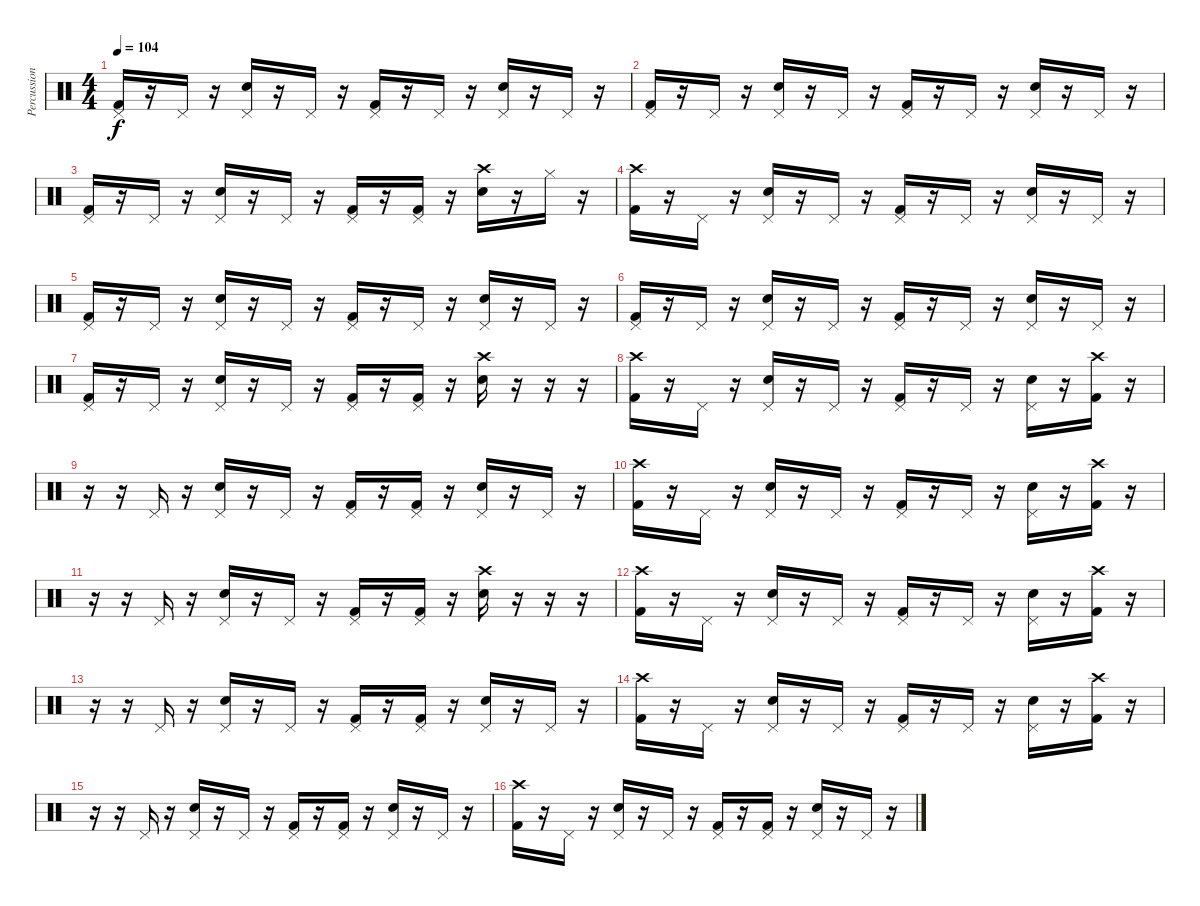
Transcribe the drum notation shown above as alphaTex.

\track ("Percussion" "Percussion") {instrument percussion}
\staff {score}
\articulation defaults
\ts (4 4)
\tempo 104
\clef neutral
\ks c
("Pedal Hi-Hat (hit)" "Kick (hit) 2").16{dy f} r.16 "Pedal Hi-Hat (hit)".16 r.16 ("Pedal Hi-Hat (hit)" "Snare (hit) 2").16 r.16 "Pedal Hi-Hat (hit)".16 r.16 ("Pedal Hi-Hat (hit)" "Kick (hit) 2").16 r.16 "Pedal Hi-Hat (hit)".16 r.16 ("Pedal Hi-Hat (hit)" "Snare (hit) 2").16 r.16 "Pedal Hi-Hat (hit)".16 r.16 |
("Pedal Hi-Hat (hit)" "Kick (hit) 2").16 r.16 "Pedal Hi-Hat (hit)".16 r.16 ("Pedal Hi-Hat (hit)" "Snare (hit) 2").16 r.16 "Pedal Hi-Hat (hit)".16 r.16 ("Pedal Hi-Hat (hit)" "Kick (hit) 2").16 r.16 "Pedal Hi-Hat (hit)".16 r.16 ("Pedal Hi-Hat (hit)" "Snare (hit) 2").16 r.16 "Pedal Hi-Hat (hit)".16 r.16 |
("Pedal Hi-Hat (hit)" "Kick (hit) 2").16 r.16 "Pedal Hi-Hat (hit)".16 r.16 ("Pedal Hi-Hat (hit)" "Snare (hit) 2").16 r.16 "Pedal Hi-Hat (hit)".16 r.16 ("Pedal Hi-Hat (hit)" "Kick (hit) 2").16 r.16 ("Pedal Hi-Hat (hit)" "Kick (hit) 2").16 r.16 ("Crash high (hit)" "Snare (hit) 2").16 r.16 "Hi-Hat (closed)".16 r.16 |
("Crash high (hit)" "Kick (hit) 2").16 r.16 "Pedal Hi-Hat (hit)".16 r.16 ("Pedal Hi-Hat (hit)" "Snare (hit) 2").16 r.16 "Pedal Hi-Hat (hit)".16 r.16 ("Pedal Hi-Hat (hit)" "Kick (hit) 2").16 r.16 "Pedal Hi-Hat (hit)".16 r.16 ("Pedal Hi-Hat (hit)" "Snare (hit) 2").16 r.16 "Pedal Hi-Hat (hit)".16 r.16 |
("Pedal Hi-Hat (hit)" "Kick (hit) 2").16 r.16 "Pedal Hi-Hat (hit)".16 r.16 ("Pedal Hi-Hat (hit)" "Snare (hit) 2").16 r.16 "Pedal Hi-Hat (hit)".16 r.16 ("Pedal Hi-Hat (hit)" "Kick (hit) 2").16 r.16 "Pedal Hi-Hat (hit)".16 r.16 ("Pedal Hi-Hat (hit)" "Snare (hit) 2").16 r.16 "Pedal Hi-Hat (hit)".16 r.16 |
("Pedal Hi-Hat (hit)" "Kick (hit) 2").16 r.16 "Pedal Hi-Hat (hit)".16 r.16 ("Pedal Hi-Hat (hit)" "Snare (hit) 2").16 r.16 "Pedal Hi-Hat (hit)".16 r.16 ("Pedal Hi-Hat (hit)" "Kick (hit) 2").16 r.16 "Pedal Hi-Hat (hit)".16 r.16 ("Pedal Hi-Hat (hit)" "Snare (hit) 2").16 r.16 "Pedal Hi-Hat (hit)".16 r.16 |
("Pedal Hi-Hat (hit)" "Kick (hit) 2").16 r.16 "Pedal Hi-Hat (hit)".16 r.16 ("Pedal Hi-Hat (hit)" "Snare (hit) 2").16 r.16 "Pedal Hi-Hat (hit)".16 r.16 ("Pedal Hi-Hat (hit)" "Kick (hit) 2").16 r.16 ("Pedal Hi-Hat (hit)" "Kick (hit) 2").16 r.16 ("Crash high (hit)" "Snare (hit) 2").16 r.16 r.16 r.16 |
("Crash high (hit)" "Kick (hit) 2").16 r.16 "Pedal Hi-Hat (hit)".16 r.16 ("Pedal Hi-Hat (hit)" "Snare (hit) 2").16 r.16 "Pedal Hi-Hat (hit)".16 r.16 ("Pedal Hi-Hat (hit)" "Kick (hit) 2").16 r.16 "Pedal Hi-Hat (hit)".16 r.16 ("Pedal Hi-Hat (hit)" "Snare (hit) 2").16 r.16 ("Crash high (hit)" "Kick (hit) 2").16 r.16 |
r.16 r.16 "Pedal Hi-Hat (hit)".16 r.16 ("Pedal Hi-Hat (hit)" "Snare (hit) 2").16 r.16 "Pedal Hi-Hat (hit)".16 r.16 ("Pedal Hi-Hat (hit)" "Kick (hit) 2").16 r.16 ("Pedal Hi-Hat (hit)" "Kick (hit) 2").16 r.16 ("Pedal Hi-Hat (hit)" "Snare (hit) 2").16 r.16 "Pedal Hi-Hat (hit)".16 r.16 |
("Crash high (hit)" "Kick (hit) 2").16 r.16 "Pedal Hi-Hat (hit)".16 r.16 ("Pedal Hi-Hat (hit)" "Snare (hit) 2").16 r.16 "Pedal Hi-Hat (hit)".16 r.16 ("Pedal Hi-Hat (hit)" "Kick (hit) 2").16 r.16 "Pedal Hi-Hat (hit)".16 r.16 ("Pedal Hi-Hat (hit)" "Snare (hit) 2").16 r.16 ("Crash high (hit)" "Kick (hit) 2").16 r.16 |
r.16 r.16 "Pedal Hi-Hat (hit)".16 r.16 ("Pedal Hi-Hat (hit)" "Snare (hit) 2").16 r.16 "Pedal Hi-Hat (hit)".16 r.16 ("Pedal Hi-Hat (hit)" "Kick (hit) 2").16 r.16 ("Pedal Hi-Hat (hit)" "Kick (hit) 2").16 r.16 ("Crash high (hit)" "Snare (hit) 2").16 r.16 r.16 r.16 |
("Crash high (hit)" "Kick (hit) 2").16 r.16 "Pedal Hi-Hat (hit)".16 r.16 ("Pedal Hi-Hat (hit)" "Snare (hit) 2").16 r.16 "Pedal Hi-Hat (hit)".16 r.16 ("Pedal Hi-Hat (hit)" "Kick (hit) 2").16 r.16 "Pedal Hi-Hat (hit)".16 r.16 ("Pedal Hi-Hat (hit)" "Snare (hit) 2").16 r.16 ("Crash high (hit)" "Kick (hit) 2").16 r.16 |
r.16 r.16 "Pedal Hi-Hat (hit)".16 r.16 ("Pedal Hi-Hat (hit)" "Snare (hit) 2").16 r.16 "Pedal Hi-Hat (hit)".16 r.16 ("Pedal Hi-Hat (hit)" "Kick (hit) 2").16 r.16 ("Pedal Hi-Hat (hit)" "Kick (hit) 2").16 r.16 ("Pedal Hi-Hat (hit)" "Snare (hit) 2").16 r.16 "Pedal Hi-Hat (hit)".16 r.16 |
("Crash high (hit)" "Kick (hit) 2").16 r.16 "Pedal Hi-Hat (hit)".16 r.16 ("Pedal Hi-Hat (hit)" "Snare (hit) 2").16 r.16 "Pedal Hi-Hat (hit)".16 r.16 ("Pedal Hi-Hat (hit)" "Kick (hit) 2").16 r.16 "Pedal Hi-Hat (hit)".16 r.16 ("Pedal Hi-Hat (hit)" "Snare (hit) 2").16 r.16 ("Crash high (hit)" "Kick (hit) 2").16 r.16 |
r.16 r.16 "Pedal Hi-Hat (hit)".16 r.16 ("Pedal Hi-Hat (hit)" "Snare (hit) 2").16 r.16 "Pedal Hi-Hat (hit)".16 r.16 ("Pedal Hi-Hat (hit)" "Kick (hit) 2").16 r.16 ("Pedal Hi-Hat (hit)" "Kick (hit) 2").16 r.16 ("Pedal Hi-Hat (hit)" "Snare (hit) 2").16 r.16 "Pedal Hi-Hat (hit)".16 r.16 |
("Crash high (hit)" "Kick (hit) 2").16 r.16 "Pedal Hi-Hat (hit)".16 r.16 ("Pedal Hi-Hat (hit)" "Snare (hit) 2").16 r.16 "Pedal Hi-Hat (hit)".16 r.16 ("Pedal Hi-Hat (hit)" "Kick (hit) 2").16 r.16 ("Pedal Hi-Hat (hit)" "Kick (hit) 2").16 r.16 ("Pedal Hi-Hat (hit)" "Snare (hit) 2").16 r.16 "Pedal Hi-Hat (hit)".16 r.16
